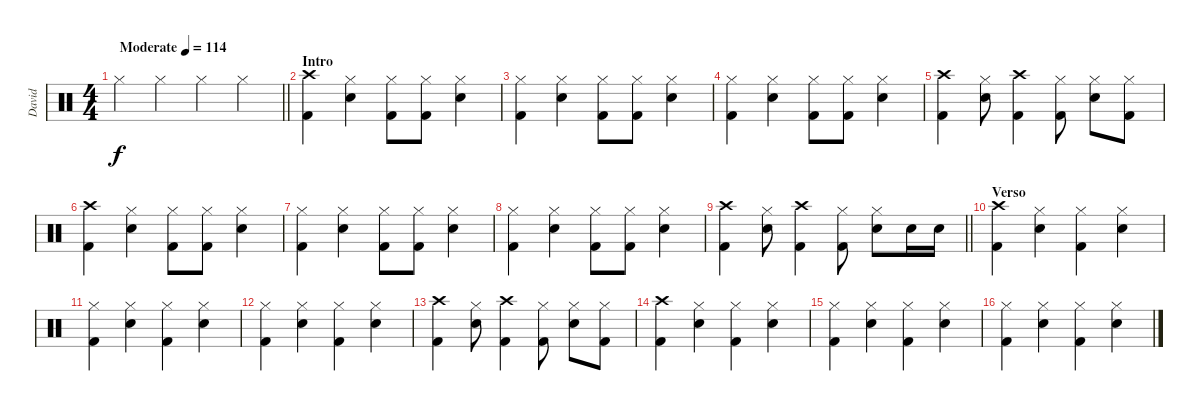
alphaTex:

\track ("David" "David") {instrument percussion}
\staff {score}
\articulation defaults
\ts (4 4)
\tempo (114 "Moderate")
\clef neutral
\barLineRight lightlight
\ks c "Hi-Hat (closed)".4{dy f} "Hi-Hat (closed)".4 "Hi-Hat (closed)".4 "Hi-Hat (closed)".4
|
\section ("" "Intro")
("Crash high (hit)" "Kick (hit) 2").4 ("Hi-Hat (closed)" "Snare (hit) 2").4 ("Hi-Hat (closed)" "Kick (hit) 2").8 ("Hi-Hat (closed)" "Kick (hit) 2").8 ("Hi-Hat (closed)" "Snare (hit) 2").4 |
("Hi-Hat (closed)" "Kick (hit) 2").4 ("Hi-Hat (closed)" "Snare (hit) 2").4 ("Hi-Hat (closed)" "Kick (hit) 2").8 ("Hi-Hat (closed)" "Kick (hit) 2").8 ("Hi-Hat (closed)" "Snare (hit) 2").4 |
("Hi-Hat (closed)" "Kick (hit) 2").4 ("Hi-Hat (closed)" "Snare (hit) 2").4 ("Hi-Hat (closed)" "Kick (hit) 2").8 ("Hi-Hat (closed)" "Kick (hit) 2").8 ("Hi-Hat (closed)" "Snare (hit) 2").4 |
("Crash high (hit)" "Kick (hit) 2").4 ("Hi-Hat (closed)" "Snare (hit) 2").8 ("Crash high (hit)" "Kick (hit) 2").4 ("Hi-Hat (closed)" "Kick (hit) 2").8 ("Hi-Hat (closed)" "Snare (hit) 2").8 ("Hi-Hat (closed)" "Kick (hit) 2").8 |
("Crash high (hit)" "Kick (hit) 2").4 ("Hi-Hat (closed)" "Snare (hit) 2").4 ("Hi-Hat (closed)" "Kick (hit) 2").8 ("Hi-Hat (closed)" "Kick (hit) 2").8 ("Hi-Hat (closed)" "Snare (hit) 2").4 |
("Hi-Hat (closed)" "Kick (hit) 2").4 ("Hi-Hat (closed)" "Snare (hit) 2").4 ("Hi-Hat (closed)" "Kick (hit) 2").8 ("Hi-Hat (closed)" "Kick (hit) 2").8 ("Hi-Hat (closed)" "Snare (hit) 2").4 |
("Hi-Hat (closed)" "Kick (hit) 2").4 ("Hi-Hat (closed)" "Snare (hit) 2").4 ("Hi-Hat (closed)" "Kick (hit) 2").8 ("Hi-Hat (closed)" "Kick (hit) 2").8 ("Hi-Hat (closed)" "Snare (hit) 2").4 |
\barLineRight lightlight
("Crash high (hit)" "Kick (hit) 2").4 ("Hi-Hat (closed)" "Snare (hit) 2").8 ("Crash high (hit)" "Kick (hit) 2").4 ("Hi-Hat (closed)" "Kick (hit) 2").8 ("Hi-Hat (closed)" "Snare (hit) 2").8 "Snare (hit) 2".16 "Snare (hit) 2".16 |
\section ("" "Verso")
("Crash high (hit)" "Kick (hit) 2").4 ("Hi-Hat (closed)" "Snare (hit) 2").4 ("Hi-Hat (closed)" "Kick (hit) 2").4 ("Hi-Hat (closed)" "Snare (hit) 2").4 |
("Hi-Hat (closed)" "Kick (hit) 2").4 ("Hi-Hat (closed)" "Snare (hit) 2").4 ("Hi-Hat (closed)" "Kick (hit) 2").4 ("Hi-Hat (closed)" "Snare (hit) 2").4 |
("Hi-Hat (closed)" "Kick (hit) 2").4 ("Hi-Hat (closed)" "Snare (hit) 2").4 ("Hi-Hat (closed)" "Kick (hit) 2").4 ("Hi-Hat (closed)" "Snare (hit) 2").4 |
("Crash high (hit)" "Kick (hit) 2").4 ("Hi-Hat (closed)" "Snare (hit) 2").8 ("Crash high (hit)" "Kick (hit) 2").4 ("Hi-Hat (closed)" "Kick (hit) 2").8 ("Hi-Hat (closed)" "Snare (hit) 2").8 ("Hi-Hat (closed)" "Kick (hit) 2").8 |
("Crash high (hit)" "Kick (hit) 2").4 ("Hi-Hat (closed)" "Snare (hit) 2").4 ("Hi-Hat (closed)" "Kick (hit) 2").4 ("Hi-Hat (closed)" "Snare (hit) 2").4 |
("Hi-Hat (closed)" "Kick (hit) 2").4 ("Hi-Hat (closed)" "Snare (hit) 2").4 ("Hi-Hat (closed)" "Kick (hit) 2").4 ("Hi-Hat (closed)" "Snare (hit) 2").4 |
("Hi-Hat (closed)" "Kick (hit) 2").4 ("Hi-Hat (closed)" "Snare (hit) 2").4 ("Hi-Hat (closed)" "Kick (hit) 2").4 ("Hi-Hat (closed)" "Snare (hit) 2").4
